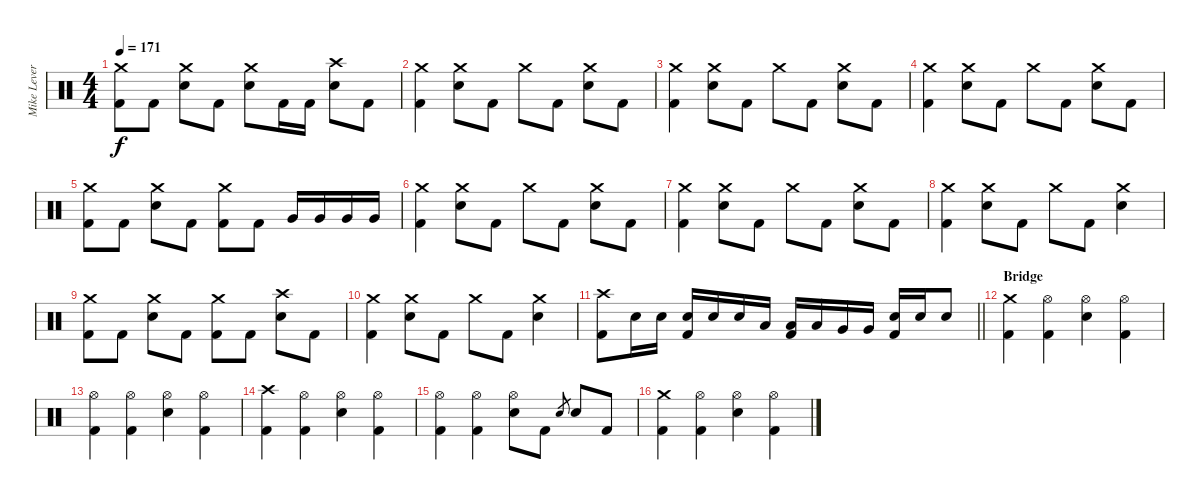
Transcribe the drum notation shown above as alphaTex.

\track ("Mike Leverence - Drums" "Mike Lever") {instrument percussion}
\staff {score}
\articulation defaults
\ts (4 4)
\tempo 171
\clef neutral
\ks c
("Crash medium (hit)" "Kick (hit) 2").8{dy f} "Kick (hit) 2".8 ("Crash medium (hit)" "Electric Snare (hit)").8 "Kick (hit) 2".8 ("Crash medium (hit)" "Electric Snare (hit)").8 "Kick (hit) 2".16 "Kick (hit) 2".16 ("Crash high (hit)" "Electric Snare (hit)").8 "Kick (hit) 2".8 |
("Crash medium (hit)" "Kick (hit) 2").4 ("Crash medium (hit)" "Electric Snare (hit)").8 "Kick (hit) 2".8 "Crash medium (hit)".8 "Kick (hit) 2".8 ("Crash medium (hit)" "Electric Snare (hit)").8 "Kick (hit) 2".8 |
("Crash medium (hit)" "Kick (hit) 2").4 ("Crash medium (hit)" "Electric Snare (hit)").8 "Kick (hit) 2".8 "Crash medium (hit)".8 "Kick (hit) 2".8 ("Crash medium (hit)" "Electric Snare (hit)").8 "Kick (hit) 2".8 |
("Crash medium (hit)" "Kick (hit) 2").4 ("Crash medium (hit)" "Electric Snare (hit)").8 "Kick (hit) 2".8 "Crash medium (hit)".8 "Kick (hit) 2".8 ("Crash medium (hit)" "Electric Snare (hit)").8 "Kick (hit) 2".8 |
("Crash medium (hit)" "Kick (hit) 2").8 "Kick (hit) 2".8 ("Crash medium (hit)" "Electric Snare (hit)").8 "Kick (hit) 2".8 ("Crash medium (hit)" "Kick (hit) 2").8 "Kick (hit) 2".8 "Very Low Tom (hit)".16 "Very Low Tom (hit)".16 "Very Low Tom (hit)".16 "Very Low Tom (hit)".16 |
("Crash medium (hit)" "Kick (hit) 2").4 ("Crash medium (hit)" "Electric Snare (hit)").8 "Kick (hit) 2".8 "Crash medium (hit)".8 "Kick (hit) 2".8 ("Crash medium (hit)" "Electric Snare (hit)").8 "Kick (hit) 2".8 |
("Crash medium (hit)" "Kick (hit) 2").4 ("Crash medium (hit)" "Electric Snare (hit)").8 "Kick (hit) 2".8 "Crash medium (hit)".8 "Kick (hit) 2".8 ("Crash medium (hit)" "Electric Snare (hit)").8 "Kick (hit) 2".8 |
("Crash medium (hit)" "Kick (hit) 2").4 ("Crash medium (hit)" "Electric Snare (hit)").8 "Kick (hit) 2".8 "Crash medium (hit)".8 "Kick (hit) 2".8 ("Crash medium (hit)" "Electric Snare (hit)").4 |
("Crash medium (hit)" "Kick (hit) 2").8 "Kick (hit) 2".8 ("Crash medium (hit)" "Electric Snare (hit)").8 "Kick (hit) 2".8 ("Crash medium (hit)" "Kick (hit) 2").8 "Kick (hit) 2".8 ("Crash high (hit)" "Electric Snare (hit)").8 "Kick (hit) 2".8 |
("Crash medium (hit)" "Kick (hit) 2").4 ("Crash medium (hit)" "Electric Snare (hit)").8 "Kick (hit) 2".8 "Crash medium (hit)".8 "Kick (hit) 2".8 ("Crash medium (hit)" "Electric Snare (hit)").4 |
\barLineRight lightlight
("Crash high (hit)" "Kick (hit) 2").8 "Electric Snare (hit)".16 "Electric Snare (hit)".16 ("Electric Snare (hit)" "Kick (hit) 2").16 "Electric Snare (hit)".16 "Electric Snare (hit)".16 "Low Tom (hit)".16 ("Low Tom (hit)" "Kick (hit) 2").16 "Low Tom (hit)".16 "Very Low Tom (hit)".16 "Very Low Tom (hit)".16 ("Electric Snare (hit)" "Kick (hit) 2").16 "Electric Snare (hit)".16 "Electric Snare (hit)".8 |
\section ("" "Bridge")
("Crash medium (hit)" "Kick (hit) 2").4 ("Hi-Hat (open)" "Kick (hit) 2").4 ("Hi-Hat (open)" "Electric Snare (hit)").4 ("Hi-Hat (open)" "Kick (hit) 2").4 |
("Hi-Hat (open)" "Kick (hit) 2").4 ("Hi-Hat (open)" "Kick (hit) 2").4 ("Hi-Hat (open)" "Electric Snare (hit)").4 ("Hi-Hat (open)" "Kick (hit) 2").4 |
("Crash high (hit)" "Kick (hit) 2").4 ("Hi-Hat (open)" "Kick (hit) 2").4 ("Hi-Hat (open)" "Electric Snare (hit)").4 ("Hi-Hat (open)" "Kick (hit) 2").4 |
("Hi-Hat (open)" "Kick (hit) 2").4 ("Hi-Hat (open)" "Kick (hit) 2").4 ("Hi-Hat (open)" "Electric Snare (hit)").8 "Kick (hit) 2".8 "Electric Snare (hit)".8{gr} "Electric Snare (hit)".8 "Kick (hit) 2".8 |
("Crash medium (hit)" "Kick (hit) 2").4 ("Hi-Hat (open)" "Kick (hit) 2").4 ("Hi-Hat (open)" "Electric Snare (hit)").4 ("Hi-Hat (open)" "Kick (hit) 2").4
